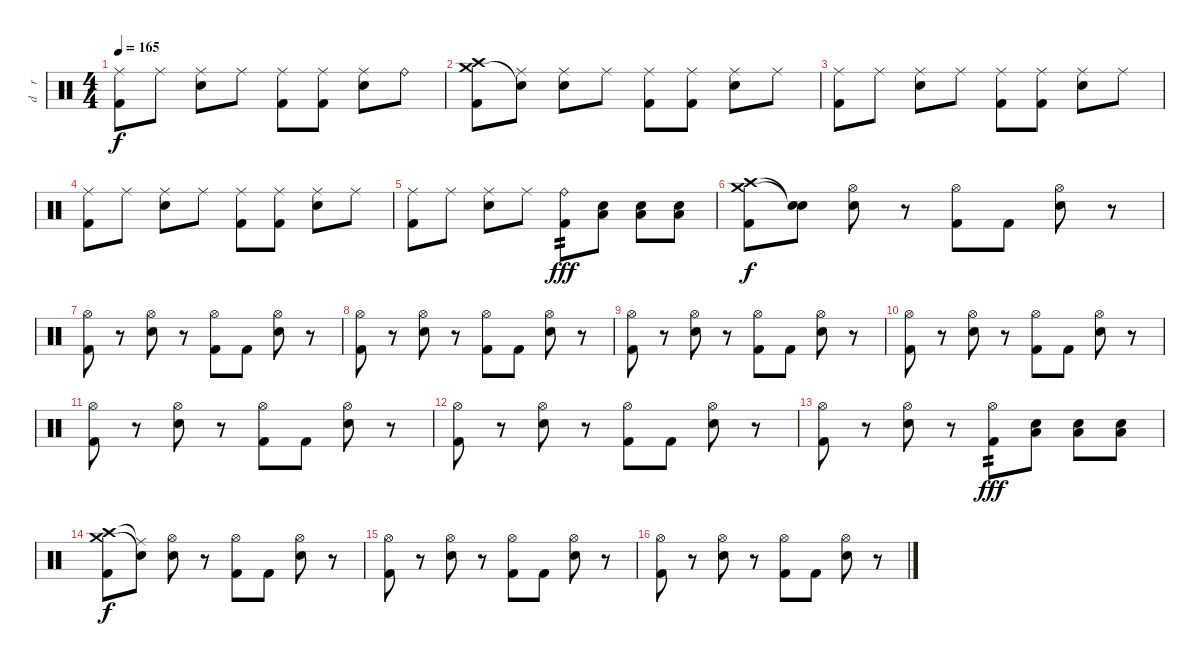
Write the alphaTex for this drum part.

\track ("d    r    u    m    s" "d    r    ") {instrument percussion}
\staff {score}
\articulation defaults
\ts (4 4)
\tempo 165
\clef neutral
\ks c
("Ride (middle)" "Kick (hit) 2").8{dy f} "Ride (middle)".8 ("Ride (middle)" "Electric Snare (hit)").8 "Ride (middle)".8 ("Ride (middle)" "Kick (hit) 2").8 ("Ride (middle)" "Kick (hit) 2").8 ("Ride (middle)" "Electric Snare (hit)").8 "Ride (bell)".8 |
("Crash high (hit)" "Crash medium (hit)" "Kick (hit) 2").8 ("Ride (middle)" "Snare (hit)"{t}).8 ("Ride (middle)" "Electric Snare (hit)").8 "Ride (middle)".8 ("Ride (middle)" "Kick (hit) 2").8 ("Ride (middle)" "Kick (hit) 2").8 ("Ride (middle)" "Electric Snare (hit)").8 "Ride (middle)".8 |
("Ride (middle)" "Kick (hit) 2").8 "Ride (middle)".8 ("Ride (middle)" "Electric Snare (hit)").8 "Ride (middle)".8 ("Ride (middle)" "Kick (hit) 2").8 ("Ride (middle)" "Kick (hit) 2").8 ("Ride (middle)" "Electric Snare (hit)").8 "Ride (middle)".8 |
("Ride (middle)" "Kick (hit) 2").8 "Ride (middle)".8 ("Ride (middle)" "Electric Snare (hit)").8 "Ride (middle)".8 ("Ride (middle)" "Kick (hit) 2").8 ("Ride (middle)" "Kick (hit) 2").8 ("Ride (middle)" "Electric Snare (hit)").8 "Ride (middle)".8 |
("Ride (middle)" "Kick (hit) 2").8 "Ride (middle)".8 ("Ride (middle)" "Electric Snare (hit)").8 "Ride (middle)".8 ("Ride (bell)" "Kick (hit) 2").8{tp 2 dy fff} ("Low Floor Tom (hit)" "Electric Snare (hit)").8 ("Low Floor Tom (hit)" "Electric Snare (hit)").8 ("Low Floor Tom (hit)" "Electric Snare (hit)").8 |
("Crash high (hit)" "Crash medium (hit)" "Kick (hit) 2").8{dy f} ("Snare (hit)"{t} "Snare (hit)"{t}).8 ("Hi-Hat (open)" "Electric Snare (hit)").8 r.8 ("Hi-Hat (open)" "Kick (hit) 2").8 "Kick (hit) 2".8 ("Hi-Hat (open)" "Electric Snare (hit)").8 r.8 |
("Hi-Hat (open)" "Kick (hit) 2").8 r.8 ("Hi-Hat (open)" "Electric Snare (hit)").8 r.8 ("Hi-Hat (open)" "Kick (hit) 2").8 "Kick (hit) 2".8 ("Hi-Hat (open)" "Electric Snare (hit)").8 r.8 |
("Hi-Hat (open)" "Kick (hit) 2").8 r.8 ("Hi-Hat (open)" "Electric Snare (hit)").8 r.8 ("Hi-Hat (open)" "Kick (hit) 2").8 "Kick (hit) 2".8 ("Hi-Hat (open)" "Electric Snare (hit)").8 r.8 |
("Hi-Hat (open)" "Kick (hit) 2").8 r.8 ("Hi-Hat (open)" "Electric Snare (hit)").8 r.8 ("Hi-Hat (open)" "Kick (hit) 2").8 "Kick (hit) 2".8 ("Hi-Hat (open)" "Electric Snare (hit)").8 r.8 |
("Hi-Hat (open)" "Kick (hit) 2").8 r.8 ("Hi-Hat (open)" "Electric Snare (hit)").8 r.8 ("Hi-Hat (open)" "Kick (hit) 2").8 "Kick (hit) 2".8 ("Hi-Hat (open)" "Electric Snare (hit)").8 r.8 |
("Hi-Hat (open)" "Kick (hit) 2").8 r.8 ("Hi-Hat (open)" "Electric Snare (hit)").8 r.8 ("Hi-Hat (open)" "Kick (hit) 2").8 "Kick (hit) 2".8 ("Hi-Hat (open)" "Electric Snare (hit)").8 r.8 |
("Hi-Hat (open)" "Kick (hit) 2").8 r.8 ("Hi-Hat (open)" "Electric Snare (hit)").8 r.8 ("Hi-Hat (open)" "Kick (hit) 2").8 "Kick (hit) 2".8 ("Hi-Hat (open)" "Electric Snare (hit)").8 r.8 |
("Hi-Hat (open)" "Kick (hit) 2").8 r.8 ("Hi-Hat (open)" "Electric Snare (hit)").8 r.8 ("Hi-Hat (open)" "Kick (hit) 2").8{tp 2 dy fff} ("Low Floor Tom (hit)" "Electric Snare (hit)").8 ("Low Floor Tom (hit)" "Electric Snare (hit)").8 ("Low Floor Tom (hit)" "Electric Snare (hit)").8 |
("Crash high (hit)" "Crash medium (hit)" "Kick (hit) 2").8{dy f} ("Ride (middle)"{t} "Snare (hit)"{t}).8 ("Hi-Hat (open)" "Electric Snare (hit)").8 r.8 ("Hi-Hat (open)" "Kick (hit) 2").8 "Kick (hit) 2".8 ("Hi-Hat (open)" "Electric Snare (hit)").8 r.8 |
("Hi-Hat (open)" "Kick (hit) 2").8 r.8 ("Hi-Hat (open)" "Electric Snare (hit)").8 r.8 ("Hi-Hat (open)" "Kick (hit) 2").8 "Kick (hit) 2".8 ("Hi-Hat (open)" "Electric Snare (hit)").8 r.8 |
("Hi-Hat (open)" "Kick (hit) 2").8 r.8 ("Hi-Hat (open)" "Electric Snare (hit)").8 r.8 ("Hi-Hat (open)" "Kick (hit) 2").8 "Kick (hit) 2".8 ("Hi-Hat (open)" "Electric Snare (hit)").8 r.8
